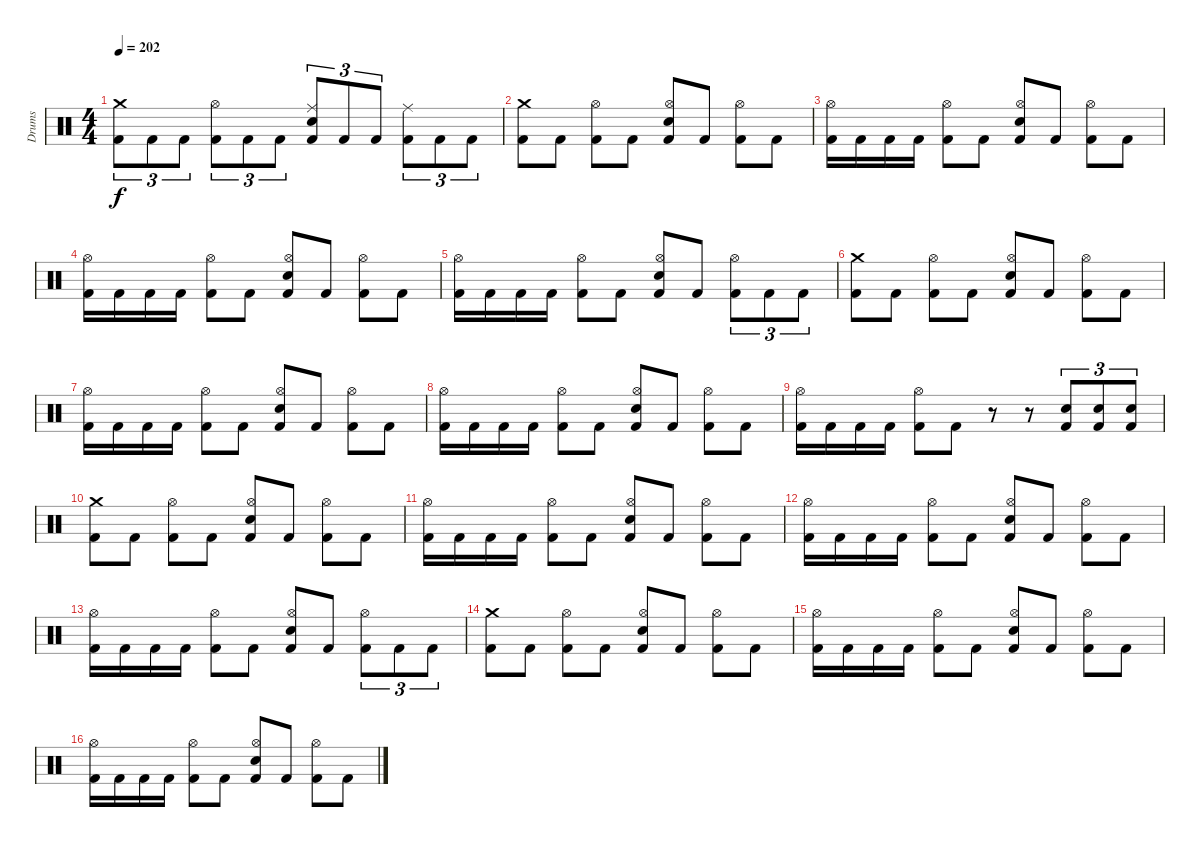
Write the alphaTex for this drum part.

\track ("Drums" "Drums") {instrument percussion}
\staff {score}
\articulation defaults
\ts (4 4)
\tempo 202
\clef neutral
\ks c
("Crash medium (hit)" "Kick (hit) 2").8{tu (3 2) dy f} "Kick (hit) 2".8{tu (3 2)} "Kick (hit) 2".8{tu (3 2)} ("Hi-Hat (open)" "Kick (hit) 2").8{tu (3 2)} "Kick (hit) 2".8{tu (3 2)} "Kick (hit) 2".8{tu (3 2)} ("Ride (middle)" "Electric Snare (hit)" "Kick (hit) 2").8{tu (3 2)} "Kick (hit) 2".8{tu (3 2)} "Kick (hit) 2".8{tu (3 2)} ("Ride (middle)" "Kick (hit) 2").8{tu (3 2)} "Kick (hit) 2".8{tu (3 2)} "Kick (hit) 2".8{tu (3 2)} |
("Crash medium (hit)" "Kick (hit) 2").8 "Kick (hit) 2".8 ("Hi-Hat (open)" "Kick (hit) 2").8 "Kick (hit) 2".8 ("Hi-Hat (open)" "Electric Snare (hit)" "Kick (hit) 2").8 "Kick (hit) 2".8 ("Hi-Hat (open)" "Kick (hit) 2").8 "Kick (hit) 2".8 |
("Hi-Hat (open)" "Kick (hit) 2").16 "Kick (hit) 2".16 "Kick (hit) 2".16 "Kick (hit) 2".16 ("Hi-Hat (open)" "Kick (hit) 2").8 "Kick (hit) 2".8 ("Hi-Hat (open)" "Electric Snare (hit)" "Kick (hit) 2").8 "Kick (hit) 2".8 ("Hi-Hat (open)" "Kick (hit) 2").8 "Kick (hit) 2".8 |
("Hi-Hat (open)" "Kick (hit) 2").16 "Kick (hit) 2".16 "Kick (hit) 2".16 "Kick (hit) 2".16 ("Hi-Hat (open)" "Kick (hit) 2").8 "Kick (hit) 2".8 ("Hi-Hat (open)" "Electric Snare (hit)" "Kick (hit) 2").8 "Kick (hit) 2".8 ("Hi-Hat (open)" "Kick (hit) 2").8 "Kick (hit) 2".8 |
("Hi-Hat (open)" "Kick (hit) 2").16 "Kick (hit) 2".16 "Kick (hit) 2".16 "Kick (hit) 2".16 ("Hi-Hat (open)" "Kick (hit) 2").8 "Kick (hit) 2".8 ("Hi-Hat (open)" "Electric Snare (hit)" "Kick (hit) 2").8 "Kick (hit) 2".8 ("Hi-Hat (open)" "Kick (hit) 2").8{tu (3 2)} "Kick (hit) 2".8{tu (3 2)} "Kick (hit) 2".8{tu (3 2)} |
("Crash medium (hit)" "Kick (hit) 2").8 "Kick (hit) 2".8 ("Hi-Hat (open)" "Kick (hit) 2").8 "Kick (hit) 2".8 ("Hi-Hat (open)" "Electric Snare (hit)" "Kick (hit) 2").8 "Kick (hit) 2".8 ("Hi-Hat (open)" "Kick (hit) 2").8 "Kick (hit) 2".8 |
("Hi-Hat (open)" "Kick (hit) 2").16 "Kick (hit) 2".16 "Kick (hit) 2".16 "Kick (hit) 2".16 ("Hi-Hat (open)" "Kick (hit) 2").8 "Kick (hit) 2".8 ("Hi-Hat (open)" "Electric Snare (hit)" "Kick (hit) 2").8 "Kick (hit) 2".8 ("Hi-Hat (open)" "Kick (hit) 2").8 "Kick (hit) 2".8 |
("Hi-Hat (open)" "Kick (hit) 2").16 "Kick (hit) 2".16 "Kick (hit) 2".16 "Kick (hit) 2".16 ("Hi-Hat (open)" "Kick (hit) 2").8 "Kick (hit) 2".8 ("Hi-Hat (open)" "Electric Snare (hit)" "Kick (hit) 2").8 "Kick (hit) 2".8 ("Hi-Hat (open)" "Kick (hit) 2").8 "Kick (hit) 2".8 |
("Hi-Hat (open)" "Kick (hit) 2").16 "Kick (hit) 2".16 "Kick (hit) 2".16 "Kick (hit) 2".16 ("Hi-Hat (open)" "Kick (hit) 2").8 "Kick (hit) 2".8 r.8 r.8 ("Electric Snare (hit)" "Kick (hit) 2").8{tu (3 2)} ("Electric Snare (hit)" "Kick (hit) 2").8{tu (3 2)} ("Electric Snare (hit)" "Kick (hit) 2").8{tu (3 2)} |
("Crash medium (hit)" "Kick (hit) 2").8 "Kick (hit) 2".8 ("Hi-Hat (open)" "Kick (hit) 2").8 "Kick (hit) 2".8 ("Hi-Hat (open)" "Electric Snare (hit)" "Kick (hit) 2").8 "Kick (hit) 2".8 ("Hi-Hat (open)" "Kick (hit) 2").8 "Kick (hit) 2".8 |
("Hi-Hat (open)" "Kick (hit) 2").16 "Kick (hit) 2".16 "Kick (hit) 2".16 "Kick (hit) 2".16 ("Hi-Hat (open)" "Kick (hit) 2").8 "Kick (hit) 2".8 ("Hi-Hat (open)" "Electric Snare (hit)" "Kick (hit) 2").8 "Kick (hit) 2".8 ("Hi-Hat (open)" "Kick (hit) 2").8 "Kick (hit) 2".8 |
("Hi-Hat (open)" "Kick (hit) 2").16 "Kick (hit) 2".16 "Kick (hit) 2".16 "Kick (hit) 2".16 ("Hi-Hat (open)" "Kick (hit) 2").8 "Kick (hit) 2".8 ("Hi-Hat (open)" "Electric Snare (hit)" "Kick (hit) 2").8 "Kick (hit) 2".8 ("Hi-Hat (open)" "Kick (hit) 2").8 "Kick (hit) 2".8 |
("Hi-Hat (open)" "Kick (hit) 2").16 "Kick (hit) 2".16 "Kick (hit) 2".16 "Kick (hit) 2".16 ("Hi-Hat (open)" "Kick (hit) 2").8 "Kick (hit) 2".8 ("Hi-Hat (open)" "Electric Snare (hit)" "Kick (hit) 2").8 "Kick (hit) 2".8 ("Hi-Hat (open)" "Kick (hit) 2").8{tu (3 2)} "Kick (hit) 2".8{tu (3 2)} "Kick (hit) 2".8{tu (3 2)} |
("Crash medium (hit)" "Kick (hit) 2").8 "Kick (hit) 2".8 ("Hi-Hat (open)" "Kick (hit) 2").8 "Kick (hit) 2".8 ("Hi-Hat (open)" "Electric Snare (hit)" "Kick (hit) 2").8 "Kick (hit) 2".8 ("Hi-Hat (open)" "Kick (hit) 2").8 "Kick (hit) 2".8 |
("Hi-Hat (open)" "Kick (hit) 2").16 "Kick (hit) 2".16 "Kick (hit) 2".16 "Kick (hit) 2".16 ("Hi-Hat (open)" "Kick (hit) 2").8 "Kick (hit) 2".8 ("Hi-Hat (open)" "Electric Snare (hit)" "Kick (hit) 2").8 "Kick (hit) 2".8 ("Hi-Hat (open)" "Kick (hit) 2").8 "Kick (hit) 2".8 |
("Hi-Hat (open)" "Kick (hit) 2").16 "Kick (hit) 2".16 "Kick (hit) 2".16 "Kick (hit) 2".16 ("Hi-Hat (open)" "Kick (hit) 2").8 "Kick (hit) 2".8 ("Hi-Hat (open)" "Electric Snare (hit)" "Kick (hit) 2").8 "Kick (hit) 2".8 ("Hi-Hat (open)" "Kick (hit) 2").8 "Kick (hit) 2".8
